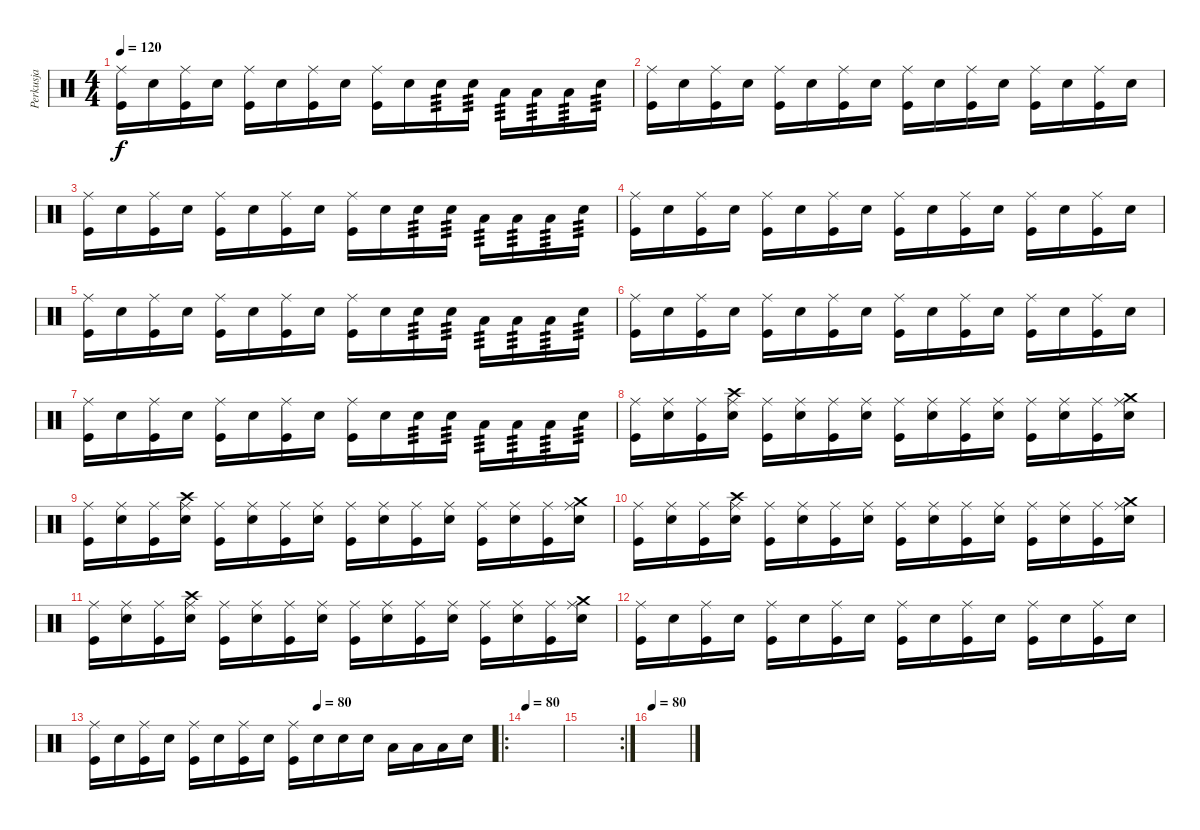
\track ("Perkusja" "Perkusja") {instrument percussion}
\staff {score}
\articulation defaults
\ts (4 4)
\tempo 120
\clef neutral
\ks c
("Ride (middle)" "Kick (hit)").16{dy f} "Snare (hit) 2".16 ("Ride (middle)" "Kick (hit)").16 "Snare (hit) 2".16 ("Ride (middle)" "Kick (hit)").16 "Snare (hit) 2".16 ("Ride (middle)" "Kick (hit)").16 "Snare (hit) 2".16 ("Ride (middle)" "Kick (hit)").16 "Snare (hit) 2".16 "Electric Snare (hit)".16{tp 3} "Electric Snare (hit)".16{tp 3} "Low Floor Tom (hit)".16{tp 3} "Low Floor Tom (hit)".16{tp 3} "Low Tom (hit)".16{tp 3} "Snare (hit) 2".16{tp 3} |
("Ride (middle)" "Kick (hit)").16 "Snare (hit) 2".16 ("Ride (middle)" "Kick (hit)").16 "Snare (hit) 2".16 ("Ride (middle)" "Kick (hit)").16 "Snare (hit) 2".16 ("Ride (middle)" "Kick (hit)").16 "Snare (hit) 2".16 ("Ride (middle)" "Kick (hit)").16 "Snare (hit) 2".16 ("Ride (middle)" "Kick (hit)").16 "Snare (hit) 2".16 ("Ride (middle)" "Kick (hit)").16 "Snare (hit) 2".16 ("Ride (middle)" "Kick (hit)").16 "Snare (hit) 2".16 |
("Ride (middle)" "Kick (hit)").16 "Snare (hit) 2".16 ("Ride (middle)" "Kick (hit)").16 "Snare (hit) 2".16 ("Ride (middle)" "Kick (hit)").16 "Snare (hit) 2".16 ("Ride (middle)" "Kick (hit)").16 "Snare (hit) 2".16 ("Ride (middle)" "Kick (hit)").16 "Snare (hit) 2".16 "Electric Snare (hit)".16{tp 3} "Electric Snare (hit)".16{tp 3} "Low Floor Tom (hit)".16{tp 3} "Low Floor Tom (hit)".16{tp 3} "Low Tom (hit)".16{tp 3} "Snare (hit) 2".16{tp 3} |
("Ride (middle)" "Kick (hit)").16 "Snare (hit) 2".16 ("Ride (middle)" "Kick (hit)").16 "Snare (hit) 2".16 ("Ride (middle)" "Kick (hit)").16 "Snare (hit) 2".16 ("Ride (middle)" "Kick (hit)").16 "Snare (hit) 2".16 ("Ride (middle)" "Kick (hit)").16 "Snare (hit) 2".16 ("Ride (middle)" "Kick (hit)").16 "Snare (hit) 2".16 ("Ride (middle)" "Kick (hit)").16 "Snare (hit) 2".16 ("Ride (middle)" "Kick (hit)").16 "Snare (hit) 2".16 |
("Ride (middle)" "Kick (hit)").16 "Snare (hit) 2".16 ("Ride (middle)" "Kick (hit)").16 "Snare (hit) 2".16 ("Ride (middle)" "Kick (hit)").16 "Snare (hit) 2".16 ("Ride (middle)" "Kick (hit)").16 "Snare (hit) 2".16 ("Ride (middle)" "Kick (hit)").16 "Snare (hit) 2".16 "Electric Snare (hit)".16{tp 3} "Electric Snare (hit)".16{tp 3} "Low Floor Tom (hit)".16{tp 3} "Low Floor Tom (hit)".16{tp 3} "Low Tom (hit)".16{tp 3} "Snare (hit) 2".16{tp 3} |
("Ride (middle)" "Kick (hit)").16 "Snare (hit) 2".16 ("Ride (middle)" "Kick (hit)").16 "Snare (hit) 2".16 ("Ride (middle)" "Kick (hit)").16 "Snare (hit) 2".16 ("Ride (middle)" "Kick (hit)").16 "Snare (hit) 2".16 ("Ride (middle)" "Kick (hit)").16 "Snare (hit) 2".16 ("Ride (middle)" "Kick (hit)").16 "Snare (hit) 2".16 ("Ride (middle)" "Kick (hit)").16 "Snare (hit) 2".16 ("Ride (middle)" "Kick (hit)").16 "Snare (hit) 2".16 |
("Ride (middle)" "Kick (hit)").16 "Snare (hit) 2".16 ("Ride (middle)" "Kick (hit)").16 "Snare (hit) 2".16 ("Ride (middle)" "Kick (hit)").16 "Snare (hit) 2".16 ("Ride (middle)" "Kick (hit)").16 "Snare (hit) 2".16 ("Ride (middle)" "Kick (hit)").16 "Snare (hit) 2".16 "Electric Snare (hit)".16{tp 3} "Electric Snare (hit)".16{tp 3} "Low Floor Tom (hit)".16{tp 3} "Low Floor Tom (hit)".16{tp 3} "Low Tom (hit)".16{tp 3} "Snare (hit) 2".16{tp 3} |
("Ride (middle)" "Kick (hit)").16 ("Ride (middle)" "Electric Snare (hit)").16 ("Ride (middle)" "Kick (hit)").16 ("Crash high (hit)" "Ride (middle)" "Electric Snare (hit)").16 ("Ride (middle)" "Kick (hit)").16 ("Ride (middle)" "Electric Snare (hit)").16 ("Ride (middle)" "Kick (hit)").16 ("Ride (middle)" "Electric Snare (hit)").16 ("Ride (middle)" "Kick (hit)").16 ("Ride (middle)" "Electric Snare (hit)").16 ("Ride (middle)" "Kick (hit)").16 ("Ride (middle)" "Electric Snare (hit)").16 ("Ride (middle)" "Kick (hit)").16 ("Ride (middle)" "Electric Snare (hit)").16 ("Ride (middle)" "Kick (hit)").16 ("Crash medium (hit)" "Ride (middle)" "Electric Snare (hit)").16 |
("Ride (middle)" "Kick (hit)").16 ("Ride (middle)" "Electric Snare (hit)").16 ("Ride (middle)" "Kick (hit)").16 ("Crash high (hit)" "Ride (middle)" "Electric Snare (hit)").16 ("Ride (middle)" "Kick (hit)").16 ("Ride (middle)" "Electric Snare (hit)").16 ("Ride (middle)" "Kick (hit)").16 ("Ride (middle)" "Electric Snare (hit)").16 ("Ride (middle)" "Kick (hit)").16 ("Ride (middle)" "Electric Snare (hit)").16 ("Ride (middle)" "Kick (hit)").16 ("Ride (middle)" "Electric Snare (hit)").16 ("Ride (middle)" "Kick (hit)").16 ("Ride (middle)" "Electric Snare (hit)").16 ("Ride (middle)" "Kick (hit)").16 ("Crash medium (hit)" "Ride (middle)" "Electric Snare (hit)").16 |
("Ride (middle)" "Kick (hit)").16 ("Ride (middle)" "Electric Snare (hit)").16 ("Ride (middle)" "Kick (hit)").16 ("Crash high (hit)" "Ride (middle)" "Electric Snare (hit)").16 ("Ride (middle)" "Kick (hit)").16 ("Ride (middle)" "Electric Snare (hit)").16 ("Ride (middle)" "Kick (hit)").16 ("Ride (middle)" "Electric Snare (hit)").16 ("Ride (middle)" "Kick (hit)").16 ("Ride (middle)" "Electric Snare (hit)").16 ("Ride (middle)" "Kick (hit)").16 ("Ride (middle)" "Electric Snare (hit)").16 ("Ride (middle)" "Kick (hit)").16 ("Ride (middle)" "Electric Snare (hit)").16 ("Ride (middle)" "Kick (hit)").16 ("Crash medium (hit)" "Ride (middle)" "Electric Snare (hit)").16 |
("Ride (middle)" "Kick (hit)").16 ("Ride (middle)" "Electric Snare (hit)").16 ("Ride (middle)" "Kick (hit)").16 ("Crash high (hit)" "Ride (middle)" "Electric Snare (hit)").16 ("Ride (middle)" "Kick (hit)").16 ("Ride (middle)" "Electric Snare (hit)").16 ("Ride (middle)" "Kick (hit)").16 ("Ride (middle)" "Electric Snare (hit)").16 ("Ride (middle)" "Kick (hit)").16 ("Ride (middle)" "Electric Snare (hit)").16 ("Ride (middle)" "Kick (hit)").16 ("Ride (middle)" "Electric Snare (hit)").16 ("Ride (middle)" "Kick (hit)").16 ("Ride (middle)" "Electric Snare (hit)").16 ("Ride (middle)" "Kick (hit)").16 ("Crash medium (hit)" "Ride (middle)" "Electric Snare (hit)").16 |
("Ride (middle)" "Kick (hit)").16 "Snare (hit) 2".16 ("Ride (middle)" "Kick (hit)").16 "Snare (hit) 2".16 ("Ride (middle)" "Kick (hit)").16 "Snare (hit) 2".16 ("Ride (middle)" "Kick (hit)").16 "Snare (hit) 2".16 ("Ride (middle)" "Kick (hit)").16 "Snare (hit) 2".16 ("Ride (middle)" "Kick (hit)").16 "Snare (hit) 2".16 ("Ride (middle)" "Kick (hit)").16 "Snare (hit) 2".16 ("Ride (middle)" "Kick (hit)").16 "Snare (hit) 2".16 |
\tempo (80 0.5625)
("Ride (middle)" "Kick (hit)").16 "Snare (hit) 2".16 ("Ride (middle)" "Kick (hit)").16 "Snare (hit) 2".16 ("Ride (middle)" "Kick (hit)").16 "Snare (hit) 2".16 ("Ride (middle)" "Kick (hit)").16 "Snare (hit) 2".16 ("Ride (middle)" "Kick (hit)").16 "Snare (hit) 2".16 "Snare (hit) 2".16 "Electric Snare (hit)".16 "Low Floor Tom (hit)".16 "Low Floor Tom (hit)".16 "Low Tom (hit)".16 "Snare (hit) 2".16 |
\ro
\tempo 80
|
\rc 2
|
\tempo 80
